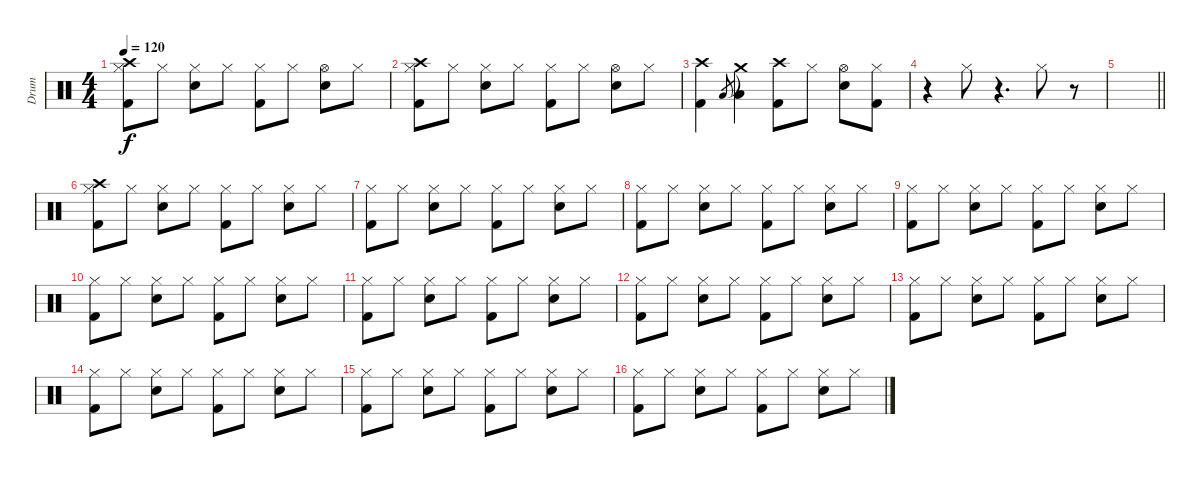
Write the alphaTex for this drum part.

\track ("Drum" "Drum") {instrument percussion}
\staff {score}
\articulation defaults
\ts (4 4)
\tempo 120
\clef neutral
\ks c
("Crash high (hit)" "Hi-Hat (closed)" "Kick (hit) 2").8{dy f} "Hi-Hat (closed)".8 ("Hi-Hat (closed)" "Snare (hit) 2").8 "Hi-Hat (closed)".8 ("Hi-Hat (closed)" "Kick (hit) 2").8 "Hi-Hat (closed)".8 ("Hi-Hat (open)" "Snare (hit) 2").8 "Hi-Hat (closed)".8 |
("Crash high (hit)" "Hi-Hat (closed)" "Kick (hit) 2").8 "Hi-Hat (closed)".8 ("Hi-Hat (closed)" "Snare (hit) 2").8 "Hi-Hat (closed)".8 ("Hi-Hat (closed)" "Kick (hit) 2").8 "Hi-Hat (closed)".8 ("Hi-Hat (open)" "Snare (hit) 2").8 "Hi-Hat (closed)".8 |
("Crash high (hit)" "Kick (hit) 2").4 "Low Floor Tom (hit)".8{gr} ("Crash medium (hit)"{t} "Low Floor Tom (hit)").4 ("Crash high (hit)" "Kick (hit) 2").8 "Hi-Hat (closed)".8 ("Hi-Hat (open)" "Snare (hit) 2").8 ("Hi-Hat (closed)" "Kick (hit) 2").8 |
r.4 "Hi-Hat (closed)".8 r.4{d} "Hi-Hat (closed)".8 r.8 |
\barLineRight lightlight
|
\section ("" "")
("Crash high (hit)" "Hi-Hat (closed)" "Kick (hit) 2").8 "Hi-Hat (closed)".8 ("Hi-Hat (closed)" "Snare (hit) 2").8 "Hi-Hat (closed)".8 ("Hi-Hat (closed)" "Kick (hit) 2").8 "Hi-Hat (closed)".8 ("Hi-Hat (closed)" "Snare (hit) 2").8 "Hi-Hat (closed)".8 |
("Hi-Hat (closed)" "Kick (hit) 2").8 "Hi-Hat (closed)".8 ("Hi-Hat (closed)" "Snare (hit) 2").8 "Hi-Hat (closed)".8 ("Hi-Hat (closed)" "Kick (hit) 2").8 "Hi-Hat (closed)".8 ("Hi-Hat (closed)" "Snare (hit) 2").8 "Hi-Hat (closed)".8 |
("Hi-Hat (closed)" "Kick (hit) 2").8 "Hi-Hat (closed)".8 ("Hi-Hat (closed)" "Snare (hit) 2").8 "Hi-Hat (closed)".8 ("Hi-Hat (closed)" "Kick (hit) 2").8 "Hi-Hat (closed)".8 ("Hi-Hat (closed)" "Snare (hit) 2").8 "Hi-Hat (closed)".8 |
("Hi-Hat (closed)" "Kick (hit) 2").8 "Hi-Hat (closed)".8 ("Hi-Hat (closed)" "Snare (hit) 2").8 "Hi-Hat (closed)".8 ("Hi-Hat (closed)" "Kick (hit) 2").8 "Hi-Hat (closed)".8 ("Hi-Hat (closed)" "Snare (hit) 2").8 "Hi-Hat (closed)".8 |
("Hi-Hat (closed)" "Kick (hit) 2").8 "Hi-Hat (closed)".8 ("Hi-Hat (closed)" "Snare (hit) 2").8 "Hi-Hat (closed)".8 ("Hi-Hat (closed)" "Kick (hit) 2").8 "Hi-Hat (closed)".8 ("Hi-Hat (closed)" "Snare (hit) 2").8 "Hi-Hat (closed)".8 |
("Hi-Hat (closed)" "Kick (hit) 2").8 "Hi-Hat (closed)".8 ("Hi-Hat (closed)" "Snare (hit) 2").8 "Hi-Hat (closed)".8 ("Hi-Hat (closed)" "Kick (hit) 2").8 "Hi-Hat (closed)".8 ("Hi-Hat (closed)" "Snare (hit) 2").8 "Hi-Hat (closed)".8 |
("Hi-Hat (closed)" "Kick (hit) 2").8 "Hi-Hat (closed)".8 ("Hi-Hat (closed)" "Snare (hit) 2").8 "Hi-Hat (closed)".8 ("Hi-Hat (closed)" "Kick (hit) 2").8 "Hi-Hat (closed)".8 ("Hi-Hat (closed)" "Snare (hit) 2").8 "Hi-Hat (closed)".8 |
("Hi-Hat (closed)" "Kick (hit) 2").8 "Hi-Hat (closed)".8 ("Hi-Hat (closed)" "Snare (hit) 2").8 "Hi-Hat (closed)".8 ("Hi-Hat (closed)" "Kick (hit) 2").8 "Hi-Hat (closed)".8 ("Hi-Hat (closed)" "Snare (hit) 2").8 "Hi-Hat (closed)".8 |
("Hi-Hat (closed)" "Kick (hit) 2").8 "Hi-Hat (closed)".8 ("Hi-Hat (closed)" "Snare (hit) 2").8 "Hi-Hat (closed)".8 ("Hi-Hat (closed)" "Kick (hit) 2").8 "Hi-Hat (closed)".8 ("Hi-Hat (closed)" "Snare (hit) 2").8 "Hi-Hat (closed)".8 |
("Hi-Hat (closed)" "Kick (hit) 2").8 "Hi-Hat (closed)".8 ("Hi-Hat (closed)" "Snare (hit) 2").8 "Hi-Hat (closed)".8 ("Hi-Hat (closed)" "Kick (hit) 2").8 "Hi-Hat (closed)".8 ("Hi-Hat (closed)" "Snare (hit) 2").8 "Hi-Hat (closed)".8 |
("Hi-Hat (closed)" "Kick (hit) 2").8 "Hi-Hat (closed)".8 ("Hi-Hat (closed)" "Snare (hit) 2").8 "Hi-Hat (closed)".8 ("Hi-Hat (closed)" "Kick (hit) 2").8 "Hi-Hat (closed)".8 ("Hi-Hat (closed)" "Snare (hit) 2").8 "Hi-Hat (closed)".8
